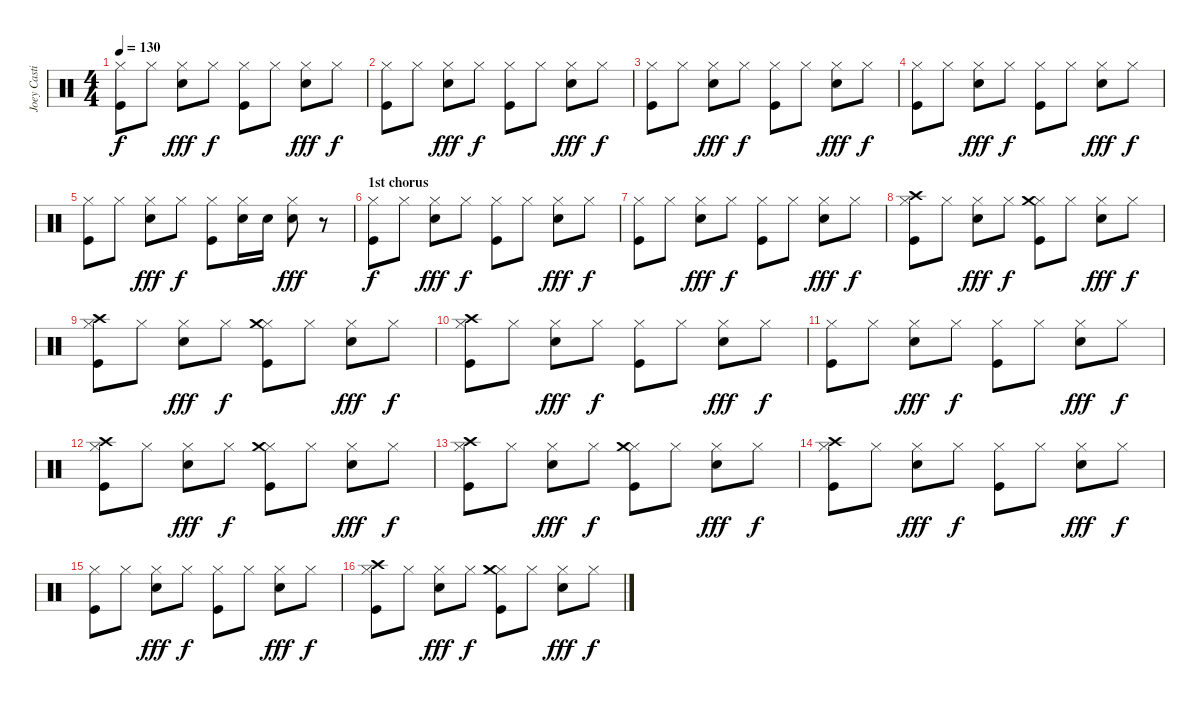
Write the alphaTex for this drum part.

\track ("Joey Castillo - drums" "Joey Casti") {instrument percussion}
\staff {score}
\articulation defaults
\ts (4 4)
\tempo 130
\clef neutral
\ks c
("Hi-Hat (closed)" "Kick (hit)").8{dy f} "Hi-Hat (closed)".8 ("Hi-Hat (closed)" "Electric Snare (hit)").8{dy fff} "Hi-Hat (closed)".8{dy f} ("Hi-Hat (closed)" "Kick (hit)").8 "Hi-Hat (closed)".8 ("Hi-Hat (closed)" "Electric Snare (hit)").8{dy fff} "Hi-Hat (closed)".8{dy f} |
("Hi-Hat (closed)" "Kick (hit)").8 "Hi-Hat (closed)".8 ("Hi-Hat (closed)" "Electric Snare (hit)").8{dy fff} "Hi-Hat (closed)".8{dy f} ("Hi-Hat (closed)" "Kick (hit)").8 "Hi-Hat (closed)".8 ("Hi-Hat (closed)" "Electric Snare (hit)").8{dy fff} "Hi-Hat (closed)".8{dy f} |
("Hi-Hat (closed)" "Kick (hit)").8 "Hi-Hat (closed)".8 ("Hi-Hat (closed)" "Electric Snare (hit)").8{dy fff} "Hi-Hat (closed)".8{dy f} ("Hi-Hat (closed)" "Kick (hit)").8 "Hi-Hat (closed)".8 ("Hi-Hat (closed)" "Electric Snare (hit)").8{dy fff} "Hi-Hat (closed)".8{dy f} |
("Hi-Hat (closed)" "Kick (hit)").8 "Hi-Hat (closed)".8 ("Hi-Hat (closed)" "Electric Snare (hit)").8{dy fff} "Hi-Hat (closed)".8{dy f} ("Hi-Hat (closed)" "Kick (hit)").8 "Hi-Hat (closed)".8 ("Hi-Hat (closed)" "Electric Snare (hit)").8{dy fff} "Hi-Hat (closed)".8{dy f} |
("Hi-Hat (closed)" "Kick (hit)").8 "Hi-Hat (closed)".8 ("Hi-Hat (closed)" "Electric Snare (hit)").8{dy fff} "Hi-Hat (closed)".8{dy f} ("Hi-Hat (closed)" "Kick (hit)").8 ("Hi-Hat (closed)" "Electric Snare (hit)").16 "Electric Snare (hit)".16 ("Hi-Hat (closed)" "Electric Snare (hit)").8{dy fff} r.8 |
\section ("" "1st chorus")
("Hi-Hat (closed)" "Kick (hit)").8{dy f} "Hi-Hat (closed)".8 ("Hi-Hat (closed)" "Electric Snare (hit)").8{dy fff} "Hi-Hat (closed)".8{dy f} ("Hi-Hat (closed)" "Kick (hit)").8 "Hi-Hat (closed)".8 ("Hi-Hat (closed)" "Electric Snare (hit)").8{dy fff} "Hi-Hat (closed)".8{dy f} |
("Hi-Hat (closed)" "Kick (hit)").8 "Hi-Hat (closed)".8 ("Hi-Hat (closed)" "Electric Snare (hit)").8{dy fff} "Hi-Hat (closed)".8{dy f} ("Hi-Hat (closed)" "Kick (hit)").8 "Hi-Hat (closed)".8 ("Hi-Hat (closed)" "Electric Snare (hit)").8{dy fff} "Hi-Hat (closed)".8{dy f} |
("Hi-Hat (closed)" "Kick (hit)" "Crash high (hit)").8 "Hi-Hat (closed)".8 ("Hi-Hat (closed)" "Electric Snare (hit)").8{dy fff} "Hi-Hat (closed)".8{dy f} ("Hi-Hat (closed)" "Kick (hit)" "Crash medium (hit)").8 "Hi-Hat (closed)".8 ("Hi-Hat (closed)" "Electric Snare (hit)").8{dy fff} "Hi-Hat (closed)".8{dy f} |
("Hi-Hat (closed)" "Kick (hit)" "Crash high (hit)").8 "Hi-Hat (closed)".8 ("Hi-Hat (closed)" "Electric Snare (hit)").8{dy fff} "Hi-Hat (closed)".8{dy f} ("Hi-Hat (closed)" "Kick (hit)" "Crash medium (hit)").8 "Hi-Hat (closed)".8 ("Hi-Hat (closed)" "Electric Snare (hit)").8{dy fff} "Hi-Hat (closed)".8{dy f} |
("Hi-Hat (closed)" "Kick (hit)" "Crash high (hit)").8 "Hi-Hat (closed)".8 ("Hi-Hat (closed)" "Electric Snare (hit)").8{dy fff} "Hi-Hat (closed)".8{dy f} ("Hi-Hat (closed)" "Kick (hit)").8 "Hi-Hat (closed)".8 ("Hi-Hat (closed)" "Electric Snare (hit)").8{dy fff} "Hi-Hat (closed)".8{dy f} |
("Hi-Hat (closed)" "Kick (hit)").8 "Hi-Hat (closed)".8 ("Hi-Hat (closed)" "Electric Snare (hit)").8{dy fff} "Hi-Hat (closed)".8{dy f} ("Hi-Hat (closed)" "Kick (hit)").8 "Hi-Hat (closed)".8 ("Hi-Hat (closed)" "Electric Snare (hit)").8{dy fff} "Hi-Hat (closed)".8{dy f} |
("Hi-Hat (closed)" "Kick (hit)" "Crash high (hit)").8 "Hi-Hat (closed)".8 ("Hi-Hat (closed)" "Electric Snare (hit)").8{dy fff} "Hi-Hat (closed)".8{dy f} ("Hi-Hat (closed)" "Kick (hit)" "Crash medium (hit)").8 "Hi-Hat (closed)".8 ("Hi-Hat (closed)" "Electric Snare (hit)").8{dy fff} "Hi-Hat (closed)".8{dy f} |
("Hi-Hat (closed)" "Kick (hit)" "Crash high (hit)").8 "Hi-Hat (closed)".8 ("Hi-Hat (closed)" "Electric Snare (hit)").8{dy fff} "Hi-Hat (closed)".8{dy f} ("Hi-Hat (closed)" "Kick (hit)" "Crash medium (hit)").8 "Hi-Hat (closed)".8 ("Hi-Hat (closed)" "Electric Snare (hit)").8{dy fff} "Hi-Hat (closed)".8{dy f} |
("Hi-Hat (closed)" "Kick (hit)" "Crash high (hit)").8 "Hi-Hat (closed)".8 ("Hi-Hat (closed)" "Electric Snare (hit)").8{dy fff} "Hi-Hat (closed)".8{dy f} ("Hi-Hat (closed)" "Kick (hit)").8 "Hi-Hat (closed)".8 ("Hi-Hat (closed)" "Electric Snare (hit)").8{dy fff} "Hi-Hat (closed)".8{dy f} |
("Hi-Hat (closed)" "Kick (hit)").8 "Hi-Hat (closed)".8 ("Hi-Hat (closed)" "Electric Snare (hit)").8{dy fff} "Hi-Hat (closed)".8{dy f} ("Hi-Hat (closed)" "Kick (hit)").8 "Hi-Hat (closed)".8 ("Hi-Hat (closed)" "Electric Snare (hit)").8{dy fff} "Hi-Hat (closed)".8{dy f} |
("Hi-Hat (closed)" "Kick (hit)" "Crash high (hit)").8 "Hi-Hat (closed)".8 ("Hi-Hat (closed)" "Electric Snare (hit)").8{dy fff} "Hi-Hat (closed)".8{dy f} ("Hi-Hat (closed)" "Kick (hit)" "Crash medium (hit)").8 "Hi-Hat (closed)".8 ("Hi-Hat (closed)" "Electric Snare (hit)").8{dy fff} "Hi-Hat (closed)".8{dy f}
